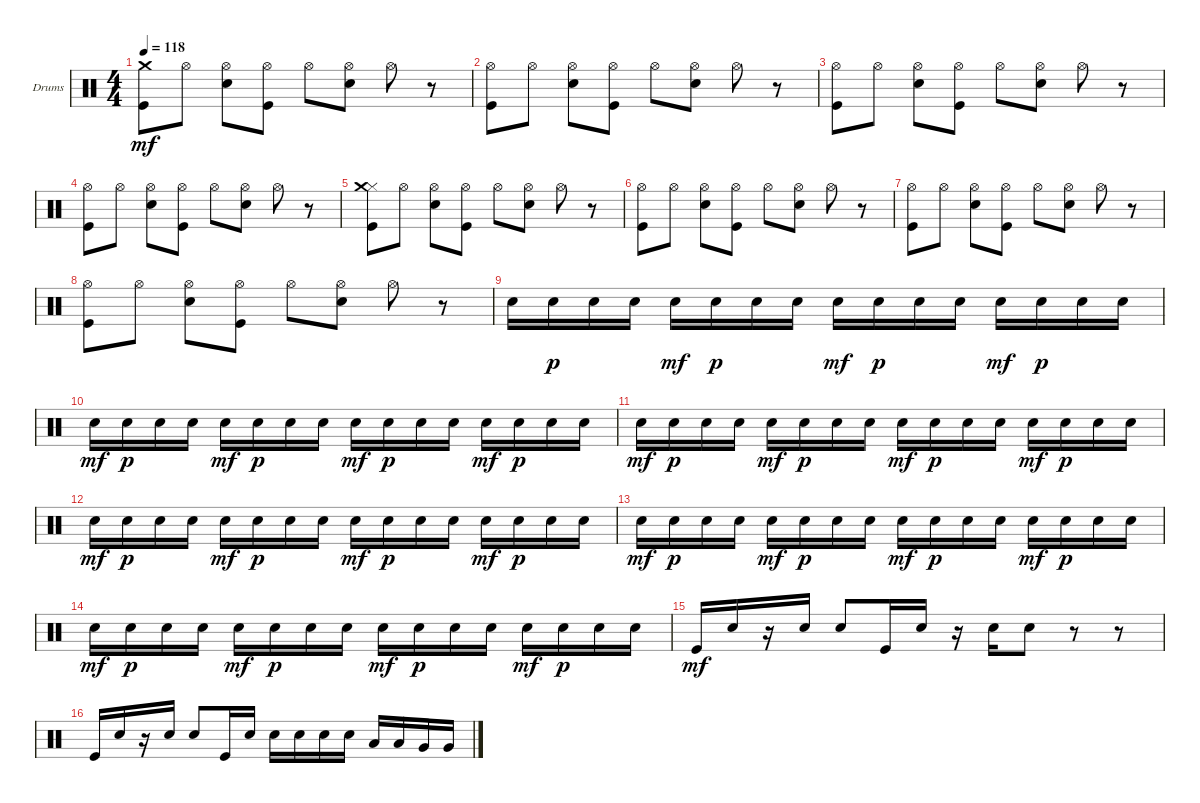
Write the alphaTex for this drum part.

\defaultSystemsLayout 4
\bracketExtendMode groupsimilarinstruments
\firstSystemTrackNameOrientation horizontal
\otherSystemsTrackNameOrientation horizontal
\track ("Drumkit" "Drums") {instrument percussion}
\staff {score}
\articulation defaults
\ts (4 4)
\tempo 118
\clef neutral
\ks c
("Kick (hit)" "Crash medium (hit)").8{dy mf} "Hi-Hat (open)".8 ("Hi-Hat (open)" "Snare (hit) 2").8 ("Hi-Hat (open)" "Kick (hit)").8 "Hi-Hat (open)".8 ("Hi-Hat (open)" "Snare (hit) 2").8 "Hi-Hat (open)".8 r.8 |
("Hi-Hat (open)" "Kick (hit)").8 "Hi-Hat (open)".8 ("Hi-Hat (open)" "Snare (hit) 2").8 ("Hi-Hat (open)" "Kick (hit)").8 "Hi-Hat (open)".8 ("Hi-Hat (open)" "Snare (hit) 2").8 "Hi-Hat (open)".8 r.8 |
("Hi-Hat (open)" "Kick (hit)").8 "Hi-Hat (open)".8 ("Hi-Hat (open)" "Snare (hit) 2").8 ("Hi-Hat (open)" "Kick (hit)").8 "Hi-Hat (open)".8 ("Hi-Hat (open)" "Snare (hit) 2").8 "Hi-Hat (open)".8 r.8 |
("Hi-Hat (open)" "Kick (hit)").8 "Hi-Hat (open)".8 ("Hi-Hat (open)" "Snare (hit) 2").8 ("Hi-Hat (open)" "Kick (hit)").8 "Hi-Hat (open)".8 ("Hi-Hat (open)" "Snare (hit) 2").8 "Hi-Hat (open)".8 r.8 |
("Kick (hit)" "Hi-Hat (closed)" "Crash medium (hit)").8 "Hi-Hat (open)".8 ("Hi-Hat (open)" "Snare (hit) 2").8 ("Hi-Hat (open)" "Kick (hit)").8 "Hi-Hat (open)".8 ("Hi-Hat (open)" "Snare (hit) 2").8 "Hi-Hat (open)".8 r.8 |
("Hi-Hat (open)" "Kick (hit)").8 "Hi-Hat (open)".8 ("Hi-Hat (open)" "Snare (hit) 2").8 ("Hi-Hat (open)" "Kick (hit)").8 "Hi-Hat (open)".8 ("Hi-Hat (open)" "Snare (hit) 2").8 "Hi-Hat (open)".8 r.8 |
("Hi-Hat (open)" "Kick (hit)").8 "Hi-Hat (open)".8 ("Hi-Hat (open)" "Snare (hit) 2").8 ("Hi-Hat (open)" "Kick (hit)").8 "Hi-Hat (open)".8 ("Hi-Hat (open)" "Snare (hit) 2").8 "Hi-Hat (open)".8 r.8 |
("Hi-Hat (open)" "Kick (hit)").8 "Hi-Hat (open)".8 ("Hi-Hat (open)" "Snare (hit) 2").8 ("Hi-Hat (open)" "Kick (hit)").8 "Hi-Hat (open)".8 ("Hi-Hat (open)" "Snare (hit) 2").8 "Hi-Hat (open)".8 r.8 |
"Snare (hit) 2".16 "Snare (hit) 2".16{dy p} "Snare (hit) 2".16 "Snare (hit) 2".16 "Snare (hit) 2".16{dy mf} "Snare (hit) 2".16{dy p} "Snare (hit) 2".16 "Snare (hit) 2".16 "Snare (hit) 2".16{dy mf} "Snare (hit) 2".16{dy p} "Snare (hit) 2".16 "Snare (hit) 2".16 "Snare (hit) 2".16{dy mf} "Snare (hit) 2".16{dy p} "Snare (hit) 2".16 "Snare (hit) 2".16 |
"Snare (hit) 2".16{dy mf} "Snare (hit) 2".16{dy p} "Snare (hit) 2".16 "Snare (hit) 2".16 "Snare (hit) 2".16{dy mf} "Snare (hit) 2".16{dy p} "Snare (hit) 2".16 "Snare (hit) 2".16 "Snare (hit) 2".16{dy mf} "Snare (hit) 2".16{dy p} "Snare (hit) 2".16 "Snare (hit) 2".16 "Snare (hit) 2".16{dy mf} "Snare (hit) 2".16{dy p} "Snare (hit) 2".16 "Snare (hit) 2".16 |
"Snare (hit) 2".16{dy mf} "Snare (hit) 2".16{dy p} "Snare (hit) 2".16 "Snare (hit) 2".16 "Snare (hit) 2".16{dy mf} "Snare (hit) 2".16{dy p} "Snare (hit) 2".16 "Snare (hit) 2".16 "Snare (hit) 2".16{dy mf} "Snare (hit) 2".16{dy p} "Snare (hit) 2".16 "Snare (hit) 2".16 "Snare (hit) 2".16{dy mf} "Snare (hit) 2".16{dy p} "Snare (hit) 2".16 "Snare (hit) 2".16 |
"Snare (hit) 2".16{dy mf} "Snare (hit) 2".16{dy p} "Snare (hit) 2".16 "Snare (hit) 2".16 "Snare (hit) 2".16{dy mf} "Snare (hit) 2".16{dy p} "Snare (hit) 2".16 "Snare (hit) 2".16 "Snare (hit) 2".16{dy mf} "Snare (hit) 2".16{dy p} "Snare (hit) 2".16 "Snare (hit) 2".16 "Snare (hit) 2".16{dy mf} "Snare (hit) 2".16{dy p} "Snare (hit) 2".16 "Snare (hit) 2".16 |
"Snare (hit) 2".16{dy mf} "Snare (hit) 2".16{dy p} "Snare (hit) 2".16 "Snare (hit) 2".16 "Snare (hit) 2".16{dy mf} "Snare (hit) 2".16{dy p} "Snare (hit) 2".16 "Snare (hit) 2".16 "Snare (hit) 2".16{dy mf} "Snare (hit) 2".16{dy p} "Snare (hit) 2".16 "Snare (hit) 2".16 "Snare (hit) 2".16{dy mf} "Snare (hit) 2".16{dy p} "Snare (hit) 2".16 "Snare (hit) 2".16 |
"Snare (hit) 2".16{dy mf} "Snare (hit) 2".16{dy p} "Snare (hit) 2".16 "Snare (hit) 2".16 "Snare (hit) 2".16{dy mf} "Snare (hit) 2".16{dy p} "Snare (hit) 2".16 "Snare (hit) 2".16 "Snare (hit) 2".16{dy mf} "Snare (hit) 2".16{dy p} "Snare (hit) 2".16 "Snare (hit) 2".16 "Snare (hit) 2".16{dy mf} "Snare (hit) 2".16{dy p} "Snare (hit) 2".16 "Snare (hit) 2".16 |
"Kick (hit)".16{dy mf} "Snare (hit) 2".16 r.16 "Snare (hit) 2".16 "Snare (hit) 2".8 "Kick (hit)".16 "Snare (hit) 2".16 r.16 "Snare (hit) 2".16 "Snare (hit) 2".8 r.8 r.8 |
"Kick (hit)".16 "Snare (hit) 2".16 r.16 "Snare (hit) 2".16 "Snare (hit) 2".8 "Kick (hit)".16 "Snare (hit) 2".16 "Snare (hit) 2".16 "Snare (hit) 2".16 "Snare (hit) 2".16 "Snare (hit) 2".16 "Low Tom (hit)".16 "Low Tom (hit)".16 "Very Low Tom (hit)".16 "Very Low Tom (hit)".16
